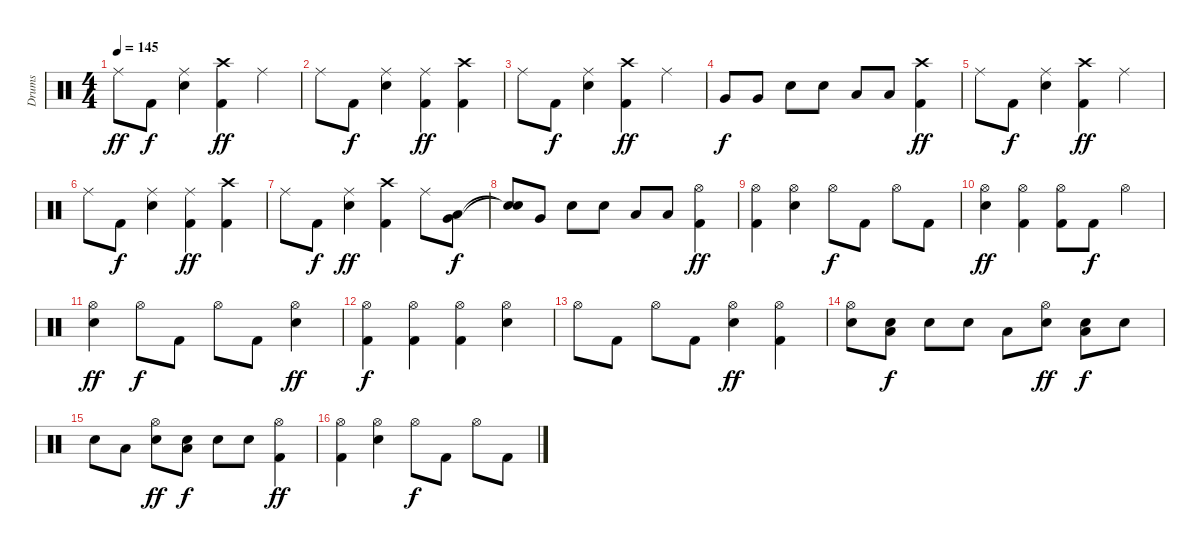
\track ("Drums" "Drums") {instrument percussion}
\staff {score}
\articulation defaults
\ts (4 4)
\tempo 145
\clef neutral
\ks c "Ride (middle)".8{dy ff} "Kick (hit) 2".8{dy f}
("Ride (middle)" "Electric Snare (hit)").4 ("Crash high (hit)" "Kick (hit) 2").4{dy ff} "Ride (middle)".4 |
"Ride (middle)".8 "Kick (hit) 2".8{dy f} ("Ride (middle)" "Electric Snare (hit)").4 ("Ride (middle)" "Kick (hit) 2").4{dy ff} ("Crash high (hit)" "Kick (hit) 2").4 |
"Ride (middle)".8 "Kick (hit) 2".8{dy f} ("Ride (middle)" "Electric Snare (hit)").4 ("Crash high (hit)" "Kick (hit) 2").4{dy ff} "Ride (middle)".4 |
"Very Low Tom (hit)".8{dy f} "Very Low Tom (hit)".8 "Electric Snare (hit)".8 "Electric Snare (hit)".8 "Low Tom (hit)".8 "Low Tom (hit)".8 ("Crash high (hit)" "Kick (hit) 2").4{dy ff} |
"Ride (middle)".8 "Kick (hit) 2".8{dy f} ("Ride (middle)" "Electric Snare (hit)").4 ("Crash high (hit)" "Kick (hit) 2").4{dy ff} "Ride (middle)".4 |
"Ride (middle)".8 "Kick (hit) 2".8{dy f} ("Ride (middle)" "Electric Snare (hit)").4 ("Ride (middle)" "Kick (hit) 2").4{dy ff} ("Crash high (hit)" "Kick (hit) 2").4 |
"Ride (middle)".8 "Kick (hit) 2".8{dy f} ("Ride (middle)" "Electric Snare (hit)").4{dy ff} ("Crash high (hit)" "Kick (hit) 2").4 "Ride (middle)".8 ("Low Tom (hit)" "Very Low Tom (hit)").8{dy f} |
("Snare (hit)"{t} "Snare (hit)"{t}).8 "Very Low Tom (hit)".8 "Electric Snare (hit)".8 "Electric Snare (hit)".8 "Low Tom (hit)".8 "Low Tom (hit)".8 ("Hi-Hat (open)" "Kick (hit) 2").4{dy ff} |
("Hi-Hat (open)" "Kick (hit) 2").4 ("Hi-Hat (open)" "Electric Snare (hit)").4 "Hi-Hat (open)".8{dy f} "Kick (hit) 2".8 "Hi-Hat (open)".8 "Kick (hit) 2".8 |
("Hi-Hat (open)" "Electric Snare (hit)").4{dy ff} ("Hi-Hat (open)" "Kick (hit) 2").4 ("Hi-Hat (open)" "Kick (hit) 2").8 "Kick (hit) 2".8{dy f} "Hi-Hat (open)".4 |
("Hi-Hat (open)" "Electric Snare (hit)").4{dy ff} "Hi-Hat (open)".8{dy f} "Kick (hit) 2".8 "Hi-Hat (open)".8 "Kick (hit) 2".8 ("Hi-Hat (open)" "Electric Snare (hit)").4{dy ff} |
("Hi-Hat (open)" "Kick (hit) 2").4{dy f} ("Hi-Hat (open)" "Kick (hit) 2").4 ("Hi-Hat (open)" "Kick (hit) 2").4 ("Hi-Hat (open)" "Electric Snare (hit)").4 |
"Hi-Hat (open)".8 "Kick (hit) 2".8 "Hi-Hat (open)".8 "Kick (hit) 2".8 ("Hi-Hat (open)" "Electric Snare (hit)").4{dy ff} ("Hi-Hat (open)" "Kick (hit) 2").4 |
("Hi-Hat (open)" "Electric Snare (hit)").8 ("Low Tom (hit)" "Electric Snare (hit)").8{dy f} "Electric Snare (hit)".8 "Electric Snare (hit)".8 "Low Floor Tom (hit)".8 ("Hi-Hat (open)" "Electric Snare (hit)").8{dy ff} ("Low Tom (hit)" "Electric Snare (hit)").8{dy f} "Electric Snare (hit)".8 |
"Electric Snare (hit)".8 "Low Floor Tom (hit)".8 ("Hi-Hat (open)" "Electric Snare (hit)").8{dy ff} ("Low Tom (hit)" "Electric Snare (hit)").8{dy f} "Electric Snare (hit)".8 "Electric Snare (hit)".8 ("Hi-Hat (open)" "Kick (hit) 2").4{dy ff} |
("Hi-Hat (open)" "Kick (hit) 2").4 ("Hi-Hat (open)" "Electric Snare (hit)").4 "Hi-Hat (open)".8{dy f} "Kick (hit) 2".8 "Hi-Hat (open)".8 "Kick (hit) 2".8
